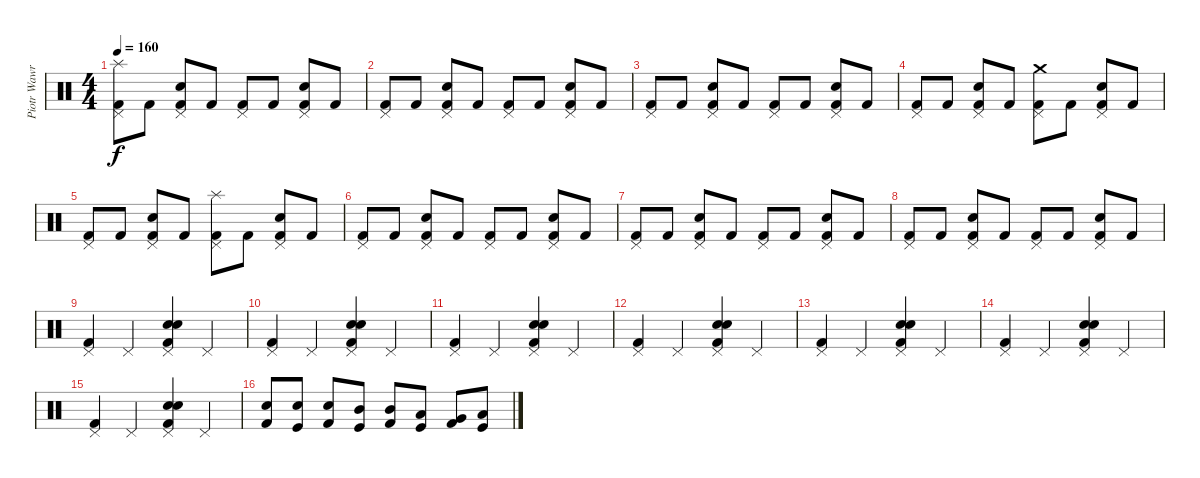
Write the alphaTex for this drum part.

\track ("Piotr Wawrzeniuk" "Piotr Wawr") {instrument percussion}
\staff {score}
\articulation defaults
\ts (4 4)
\tempo 160
\clef neutral
\ks c
("Splash (hit)" "Pedal Hi-Hat (hit)" "Kick (hit) 2").8{dy f} "Kick (hit) 2".8 ("Snare (hit) 2" "Pedal Hi-Hat (hit)" "Kick (hit) 2").8 "Kick (hit) 2".8 ("Pedal Hi-Hat (hit)" "Kick (hit) 2").8 "Kick (hit) 2".8 ("Snare (hit) 2" "Pedal Hi-Hat (hit)" "Kick (hit) 2").8 "Kick (hit) 2".8 |
("Pedal Hi-Hat (hit)" "Kick (hit) 2").8 "Kick (hit) 2".8 ("Snare (hit) 2" "Pedal Hi-Hat (hit)" "Kick (hit) 2").8 "Kick (hit) 2".8 ("Pedal Hi-Hat (hit)" "Kick (hit) 2").8 "Kick (hit) 2".8 ("Snare (hit) 2" "Pedal Hi-Hat (hit)" "Kick (hit) 2").8 "Kick (hit) 2".8 |
("Pedal Hi-Hat (hit)" "Kick (hit) 2").8 "Kick (hit) 2".8 ("Snare (hit) 2" "Pedal Hi-Hat (hit)" "Kick (hit) 2").8 "Kick (hit) 2".8 ("Pedal Hi-Hat (hit)" "Kick (hit) 2").8 "Kick (hit) 2".8 ("Snare (hit) 2" "Pedal Hi-Hat (hit)" "Kick (hit) 2").8 "Kick (hit) 2".8 |
("Pedal Hi-Hat (hit)" "Kick (hit) 2").8 "Kick (hit) 2".8 ("Snare (hit) 2" "Pedal Hi-Hat (hit)" "Kick (hit) 2").8 "Kick (hit) 2".8 ("Crash medium (hit)" "Pedal Hi-Hat (hit)" "Kick (hit) 2").8 "Kick (hit) 2".8 ("Snare (hit) 2" "Pedal Hi-Hat (hit)" "Kick (hit) 2").8 "Kick (hit) 2".8 |
("Pedal Hi-Hat (hit)" "Kick (hit) 2").8 "Kick (hit) 2".8 ("Snare (hit) 2" "Pedal Hi-Hat (hit)" "Kick (hit) 2").8 "Kick (hit) 2".8 ("Splash (hit)" "Pedal Hi-Hat (hit)" "Kick (hit) 2").8 "Kick (hit) 2".8 ("Snare (hit) 2" "Pedal Hi-Hat (hit)" "Kick (hit) 2").8 "Kick (hit) 2".8 |
("Pedal Hi-Hat (hit)" "Kick (hit) 2").8 "Kick (hit) 2".8 ("Snare (hit) 2" "Pedal Hi-Hat (hit)" "Kick (hit) 2").8 "Kick (hit) 2".8 ("Pedal Hi-Hat (hit)" "Kick (hit) 2").8 "Kick (hit) 2".8 ("Snare (hit) 2" "Pedal Hi-Hat (hit)" "Kick (hit) 2").8 "Kick (hit) 2".8 |
("Pedal Hi-Hat (hit)" "Kick (hit) 2").8 "Kick (hit) 2".8 ("Snare (hit) 2" "Pedal Hi-Hat (hit)" "Kick (hit) 2").8 "Kick (hit) 2".8 ("Pedal Hi-Hat (hit)" "Kick (hit) 2").8 "Kick (hit) 2".8 ("Snare (hit) 2" "Pedal Hi-Hat (hit)" "Kick (hit) 2").8 "Kick (hit) 2".8 |
("Pedal Hi-Hat (hit)" "Kick (hit) 2").8 "Kick (hit) 2".8 ("Snare (hit) 2" "Pedal Hi-Hat (hit)" "Kick (hit) 2").8 "Kick (hit) 2".8 ("Pedal Hi-Hat (hit)" "Kick (hit) 2").8 "Kick (hit) 2".8 ("Snare (hit) 2" "Pedal Hi-Hat (hit)" "Kick (hit) 2").8 "Kick (hit) 2".8 |
("Pedal Hi-Hat (hit)" "Kick (hit) 2").4 "Pedal Hi-Hat (hit)".4 ("Electric Snare (hit)" "Snare (hit) 2" "Pedal Hi-Hat (hit)" "Kick (hit) 2").4 "Pedal Hi-Hat (hit)".4 |
("Pedal Hi-Hat (hit)" "Kick (hit) 2").4 "Pedal Hi-Hat (hit)".4 ("Electric Snare (hit)" "Snare (hit) 2" "Pedal Hi-Hat (hit)" "Kick (hit) 2").4 "Pedal Hi-Hat (hit)".4 |
("Pedal Hi-Hat (hit)" "Kick (hit) 2").4 "Pedal Hi-Hat (hit)".4 ("Electric Snare (hit)" "Snare (hit) 2" "Pedal Hi-Hat (hit)" "Kick (hit) 2").4 "Pedal Hi-Hat (hit)".4 |
("Pedal Hi-Hat (hit)" "Kick (hit) 2").4 "Pedal Hi-Hat (hit)".4 ("Electric Snare (hit)" "Snare (hit) 2" "Pedal Hi-Hat (hit)" "Kick (hit) 2").4 "Pedal Hi-Hat (hit)".4 |
("Pedal Hi-Hat (hit)" "Kick (hit) 2").4 "Pedal Hi-Hat (hit)".4 ("Electric Snare (hit)" "Snare (hit) 2" "Pedal Hi-Hat (hit)" "Kick (hit) 2").4 "Pedal Hi-Hat (hit)".4 |
("Pedal Hi-Hat (hit)" "Kick (hit) 2").4 "Pedal Hi-Hat (hit)".4 ("Electric Snare (hit)" "Snare (hit) 2" "Pedal Hi-Hat (hit)" "Kick (hit) 2").4 "Pedal Hi-Hat (hit)".4 |
("Pedal Hi-Hat (hit)" "Kick (hit) 2").4 "Pedal Hi-Hat (hit)".4 ("Electric Snare (hit)" "Snare (hit) 2" "Pedal Hi-Hat (hit)" "Kick (hit) 2").4 "Pedal Hi-Hat (hit)".4 |
("Snare (hit) 2" "Kick (hit) 2").8 ("Snare (hit) 2" "Kick (hit)").8 ("Snare (hit) 2" "Kick (hit) 2").8 ("Mid Tom (hit)" "Kick (hit)").8 ("Mid Tom (hit)" "Kick (hit) 2").8 ("Low Tom (hit)" "Kick (hit)").8 ("Very Low Tom (hit)" "Kick (hit) 2").8 ("Low Floor Tom (hit)" "Kick (hit)").8
